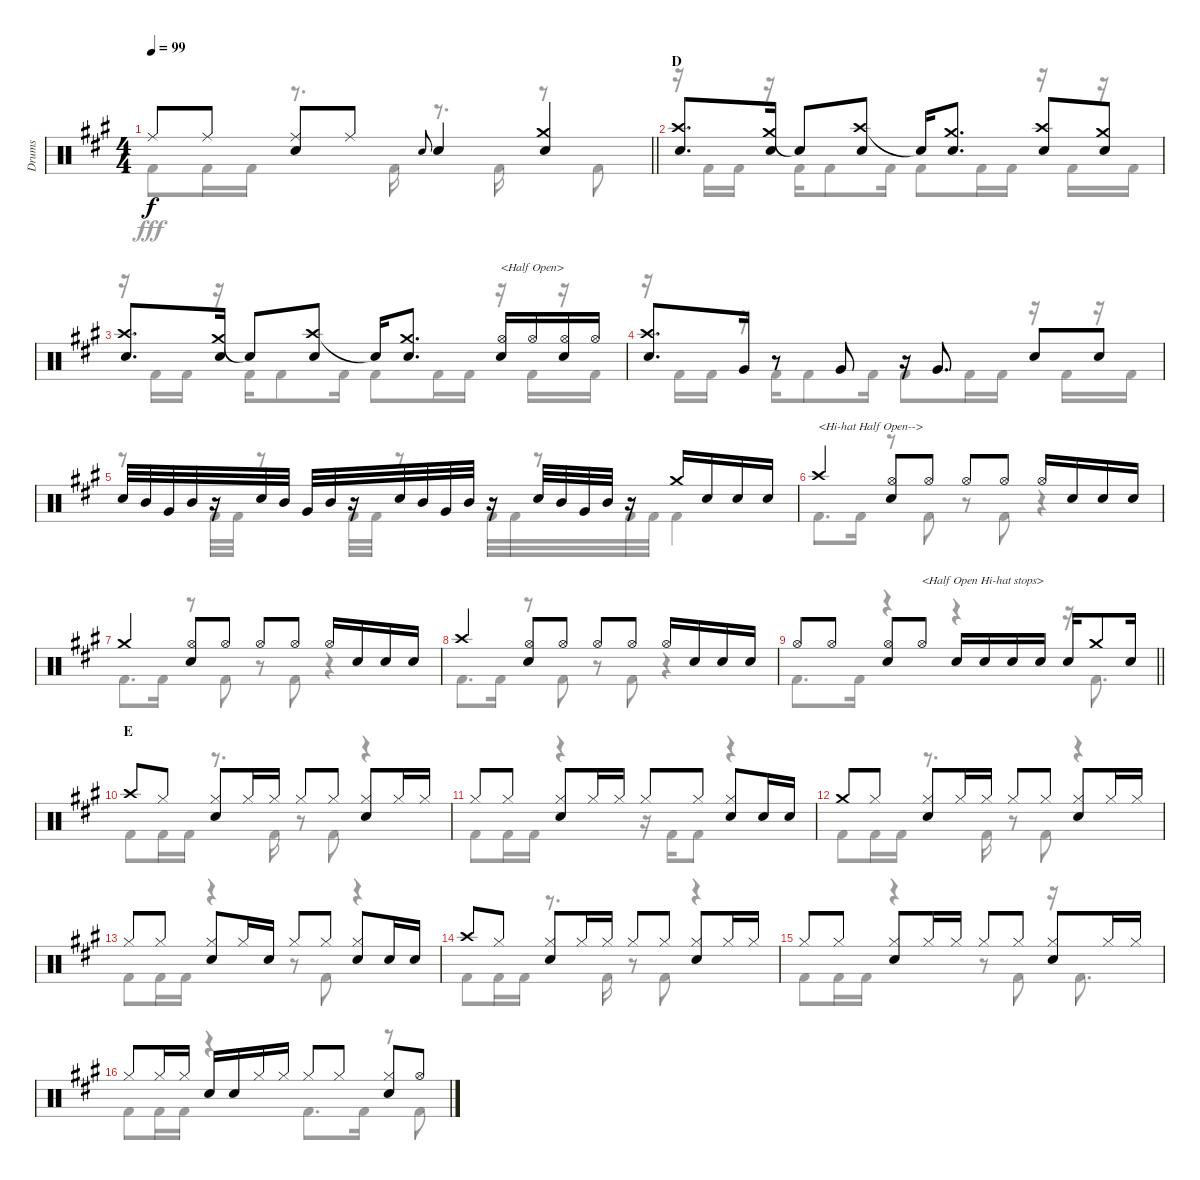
\track ("Drums" "Drums") {instrument percussion}
\staff {score}
\articulation defaults
\voice
\ts (4 4)
\tempo 99
\clef neutral
\barLineRight lightlight
\ks a "Ride (middle)".8{dy f} "Ride (middle)".8
("Ride (middle)" "Snare (hit) 2").8 "Ride (middle)".8 "Snare (hit) 2".8{gr onbeat} "Snare (hit) 2".4 ("Crash medium (hit)" "Snare (hit) 2").4 |
\section ("" "D")
("Crash high (hit)" "Snare (hit) 2").8{d} ("Crash medium (hit)" "Snare (hit) 2").16 "Snare (hit)"{t}.8 ("Crash high (hit)" "Snare (hit) 2").8 "Snare (hit)"{t}.16 ("Crash medium (hit)" "Snare (hit) 2").8{d} ("Crash high (hit)" "Snare (hit) 2").8 ("Crash medium (hit)" "Snare (hit) 2").8 |
("Crash high (hit)" "Snare (hit) 2").8{d} ("Crash medium (hit)" "Snare (hit) 2").16 "Snare (hit)"{t}.8 ("Crash high (hit)" "Snare (hit) 2").8 "Snare (hit)"{t}.16 ("Crash medium (hit)" "Snare (hit) 2").8{d} ("Hi-Hat (open)" "Snare (hit) 2").16{txt "<Half Open>"} "Hi-Hat (open)".16 ("Hi-Hat (open)" "Snare (hit) 2").16 "Hi-Hat (open)".16 |
("Crash high (hit)" "Snare (hit) 2").8{d} "Very Low Tom (hit)".16 r.8 "Very Low Tom (hit)".8 r.16 "Very Low Tom (hit)".8{d} "Snare (hit) 2".8 "Snare (hit) 2".8 |
"Snare (hit) 2".32 "Mid Tom (hit)".32 "Very Low Tom (hit)".32 "Mid Tom (hit)".32 r.16 "Snare (hit) 2".32 "Mid Tom (hit)".32 "Very Low Tom (hit)".32 "Mid Tom (hit)".32 r.16 "Snare (hit) 2".32 "Mid Tom (hit)".32 "Very Low Tom (hit)".32 "Mid Tom (hit)".32 r.16 "Snare (hit) 2".32 "Mid Tom (hit)".32 "Very Low Tom (hit)".32 "Mid Tom (hit)".32 r.16 "Crash medium (hit)".16 "Snare (hit) 2".16 "Snare (hit) 2".16 "Snare (hit) 2".16 |
"Crash high (hit)".4{txt "<Hi-hat Half Open-->"} ("Hi-Hat (open)" "Snare (hit) 2").8 "Hi-Hat (open)".8 "Hi-Hat (open)".8 "Hi-Hat (open)".8 "Hi-Hat (open)".16 "Snare (hit) 2".16 "Snare (hit) 2".16 "Snare (hit) 2".16 |
"Crash medium (hit)".4 ("Hi-Hat (open)" "Snare (hit) 2").8 "Hi-Hat (open)".8 "Hi-Hat (open)".8 "Hi-Hat (open)".8 "Hi-Hat (open)".16 "Snare (hit) 2".16 "Snare (hit) 2".16 "Snare (hit) 2".16 |
"Crash high (hit)".4 ("Hi-Hat (open)" "Snare (hit) 2").8 "Hi-Hat (open)".8 "Hi-Hat (open)".8 "Hi-Hat (open)".8 "Hi-Hat (open)".16 "Snare (hit) 2".16 "Snare (hit) 2".16 "Snare (hit) 2".16 |
\barLineRight lightlight "Hi-Hat (open)".8 "Hi-Hat (open)".8
("Hi-Hat (open)" "Snare (hit) 2").8 "Hi-Hat (open)".8{txt "<Half Open Hi-hat stops>"} "Snare (hit) 2".16 "Snare (hit) 2".16 "Snare (hit) 2".16 "Snare (hit) 2".16 "Snare (hit) 2".16 "Crash medium (hit)".8 "Snare (hit) 2".16 |
\section ("" "E")
"Crash high (hit)".8 "Hi-Hat (closed)".8 ("Hi-Hat (closed)" "Snare (hit) 2").8 "Hi-Hat (closed)".16 "Hi-Hat (closed)".16 "Hi-Hat (closed)".8 "Hi-Hat (closed)".8 ("Hi-Hat (closed)" "Snare (hit) 2").8 "Hi-Hat (closed)".16 "Hi-Hat (closed)".16 |
"Hi-Hat (closed)".8 "Hi-Hat (closed)".8 ("Hi-Hat (closed)" "Snare (hit) 2").8 "Hi-Hat (closed)".16 "Hi-Hat (closed)".16 "Hi-Hat (closed)".8 "Hi-Hat (closed)".8 ("Hi-Hat (closed)" "Snare (hit) 2").8 "Snare (hit) 2".16 "Snare (hit) 2".16 |
"Crash medium (hit)".8 "Hi-Hat (closed)".8 ("Hi-Hat (closed)" "Snare (hit) 2").8 "Hi-Hat (closed)".16 "Hi-Hat (closed)".16 "Hi-Hat (closed)".8 "Hi-Hat (closed)".8 ("Hi-Hat (closed)" "Snare (hit) 2").8 "Hi-Hat (closed)".16 "Hi-Hat (closed)".16 |
"Hi-Hat (closed)".8 "Hi-Hat (closed)".8 ("Hi-Hat (closed)" "Snare (hit) 2").8 "Hi-Hat (closed)".16 "Snare (hit) 2".16 "Hi-Hat (closed)".8 "Hi-Hat (closed)".8 ("Hi-Hat (closed)" "Snare (hit) 2").8 "Snare (hit) 2".16 "Snare (hit) 2".16 |
"Crash high (hit)".8 "Hi-Hat (closed)".8 ("Hi-Hat (closed)" "Snare (hit) 2").8 "Hi-Hat (closed)".16 "Hi-Hat (closed)".16 "Hi-Hat (closed)".8 "Hi-Hat (closed)".8 ("Hi-Hat (closed)" "Snare (hit) 2").8 "Hi-Hat (closed)".16 "Hi-Hat (closed)".16 |
"Hi-Hat (closed)".8 "Hi-Hat (closed)".8 ("Hi-Hat (closed)" "Snare (hit) 2").8 "Hi-Hat (closed)".16 "Hi-Hat (closed)".16 "Hi-Hat (closed)".8 "Hi-Hat (closed)".8 ("Hi-Hat (closed)" "Snare (hit) 2").8 "Hi-Hat (closed)".16 "Hi-Hat (closed)".16 |
"Hi-Hat (closed)".8 "Hi-Hat (closed)".16 "Hi-Hat (closed)".16 "Snare (hit) 2".16 "Snare (hit) 2".16 "Hi-Hat (closed)".16 "Hi-Hat (closed)".16 "Hi-Hat (closed)".8 "Hi-Hat (closed)".8 ("Hi-Hat (closed)" "Snare (hit) 2").8 "Hi-Hat (open)".8
\voice
\clef neutral
\ottava regular
\simile none
\barLineRight lightlight
\ks a "Kick (hit) 2".8{dy fff} "Kick (hit) 2".16 "Kick (hit) 2".16
r.8{d} "Kick (hit) 2".16 r.8{d} "Kick (hit) 2".16 r.8 "Kick (hit) 2".8 |
r.16 "Kick (hit) 2".16 "Kick (hit) 2".16 r.16 "Kick (hit) 2".16 "Kick (hit) 2".8 "Kick (hit) 2".16 "Kick (hit) 2".8 "Kick (hit) 2".16 "Kick (hit) 2".16 r.16 "Kick (hit) 2".16 r.16 "Kick (hit) 2".16 |
r.16 "Kick (hit) 2".16 "Kick (hit) 2".16 r.16 "Kick (hit) 2".16 "Kick (hit) 2".8 "Kick (hit) 2".16 "Kick (hit) 2".8 "Kick (hit) 2".16 "Kick (hit) 2".16 r.16 "Kick (hit) 2".16 r.16 "Kick (hit) 2".16 |
r.16 "Kick (hit) 2".16 "Kick (hit) 2".16 r.16 "Kick (hit) 2".16 "Kick (hit) 2".8 "Kick (hit) 2".16 "Kick (hit) 2".8 "Kick (hit) 2".16 "Kick (hit) 2".16 r.16 "Kick (hit) 2".16 r.16 "Kick (hit) 2".16 |
r.8 "Kick (hit) 2".32 "Kick (hit) 2".32 r.8 "Kick (hit) 2".32 "Kick (hit) 2".32 r.8 "Kick (hit) 2".32 "Kick (hit) 2".32 r.8 "Kick (hit) 2".32 "Kick (hit) 2".32 "Kick (hit) 2".4 |
"Kick (hit) 2".8{d} "Kick (hit) 2".16 r.8 "Kick (hit) 2".8 r.8 "Kick (hit) 2".8 r.4 |
"Kick (hit) 2".8{d} "Kick (hit) 2".16 r.8 "Kick (hit) 2".8 r.8 "Kick (hit) 2".8 r.4 |
"Kick (hit) 2".8{d} "Kick (hit) 2".16 r.8 "Kick (hit) 2".8 r.8 "Kick (hit) 2".8 r.4 |
\barLineRight lightlight "Kick (hit) 2".8{d} "Kick (hit) 2".16
r.4 r.4 r.16 "Kick (hit) 2".8{d} |
"Kick (hit) 2".8 "Kick (hit) 2".16 "Kick (hit) 2".16 r.8{d} "Kick (hit) 2".16 r.8 "Kick (hit) 2".8 r.4 |
"Kick (hit) 2".8 "Kick (hit) 2".16 "Kick (hit) 2".16 r.4 r.16 "Kick (hit) 2".16 "Kick (hit) 2".8 r.4 |
"Kick (hit) 2".8 "Kick (hit) 2".16 "Kick (hit) 2".16 r.8{d} "Kick (hit) 2".16 r.8 "Kick (hit) 2".8 r.4 |
"Kick (hit) 2".8 "Kick (hit) 2".16 "Kick (hit) 2".16 r.4 r.8 "Kick (hit) 2".8 r.4 |
"Kick (hit) 2".8 "Kick (hit) 2".16 "Kick (hit) 2".16 r.8{d} "Kick (hit) 2".16 r.8 "Kick (hit) 2".8 r.4 |
"Kick (hit) 2".8 "Kick (hit) 2".16 "Kick (hit) 2".16 r.4 r.8 "Kick (hit) 2".8 r.16 "Kick (hit) 2".8{d} |
"Kick (hit) 2".8 "Kick (hit) 2".16 "Kick (hit) 2".16 r.4 "Kick (hit) 2".8{d} "Kick (hit) 2".16 r.8 "Kick (hit) 2".8
